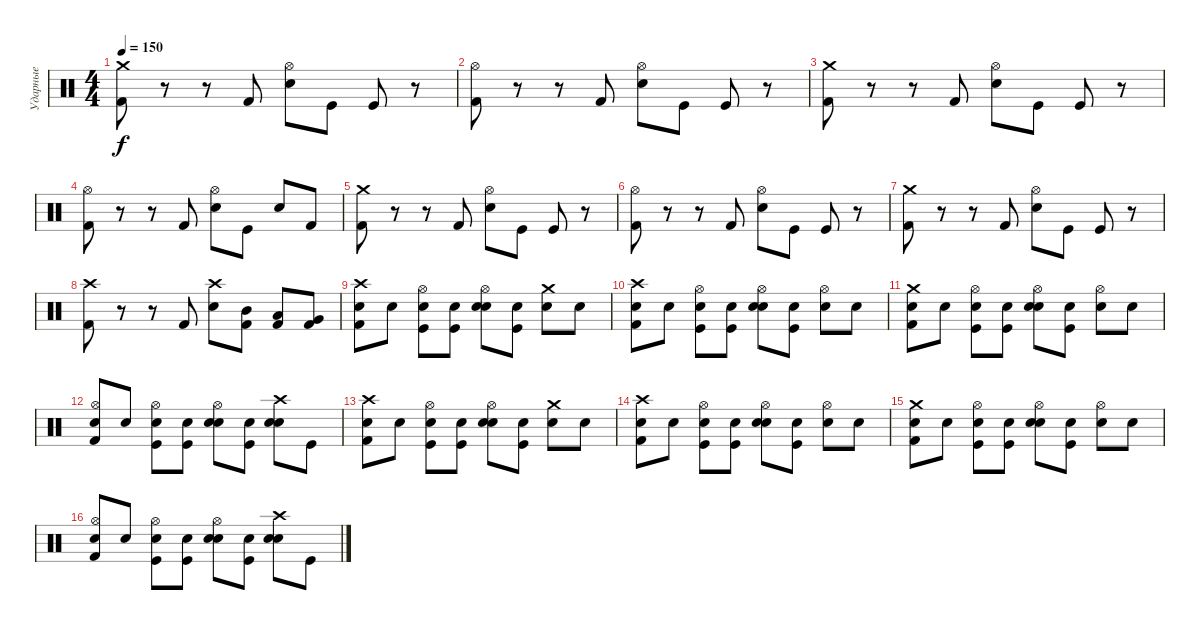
\track ("Ударные" "Ударные") {instrument percussion}
\staff {score}
\articulation defaults
\ts (4 4)
\tempo 150
\clef neutral
\ks c
("Crash medium (hit)" "Kick (hit) 2").8{dy f} r.8 r.8 "Kick (hit) 2".8 ("Hi-Hat (open)" "Snare (hit) 2").8 "Kick (hit)".8 "Kick (hit)".8 r.8 |
("Hi-Hat (open)" "Kick (hit) 2").8 r.8 r.8 "Kick (hit) 2".8 ("Hi-Hat (open)" "Snare (hit) 2").8 "Kick (hit)".8 "Kick (hit)".8 r.8 |
("Crash medium (hit)" "Kick (hit) 2").8 r.8 r.8 "Kick (hit) 2".8 ("Hi-Hat (open)" "Snare (hit) 2").8 "Kick (hit)".8 "Kick (hit)".8 r.8 |
("Hi-Hat (open)" "Kick (hit) 2").8 r.8 r.8 "Kick (hit) 2".8 ("Hi-Hat (open)" "Snare (hit) 2").8 "Kick (hit)".8 "Snare (hit) 2".8 "Kick (hit) 2".8 |
("Crash medium (hit)" "Kick (hit) 2").8 r.8 r.8 "Kick (hit) 2".8 ("Hi-Hat (open)" "Snare (hit) 2").8 "Kick (hit)".8 "Kick (hit)".8 r.8 |
("Hi-Hat (open)" "Kick (hit) 2").8 r.8 r.8 "Kick (hit) 2".8 ("Hi-Hat (open)" "Snare (hit) 2").8 "Kick (hit)".8 "Kick (hit)".8 r.8 |
("Crash medium (hit)" "Kick (hit) 2").8 r.8 r.8 "Kick (hit) 2".8 ("Hi-Hat (open)" "Snare (hit) 2").8 "Kick (hit)".8 "Kick (hit)".8 r.8 |
("Crash high (hit)" "Kick (hit) 2").8 r.8 r.8 "Kick (hit) 2".8 ("Crash high (hit)" "Snare (hit) 2").8 ("Mid Tom (hit)" "Kick (hit) 2").8 ("Low Tom (hit)" "Kick (hit) 2").8 ("Very Low Tom (hit)" "Kick (hit) 2").8 |
("Crash high (hit)" "Snare (hit)" "Kick (hit) 2").8 "Snare (hit)".8 ("Hi-Hat (open)" "Snare (hit)" "Kick (hit)").8 ("Snare (hit)" "Kick (hit)").8 ("Hi-Hat (open)" "Snare (hit) 2" "Snare (hit)").8 ("Snare (hit)" "Kick (hit)").8 ("Crash medium (hit)" "Snare (hit)").8 "Snare (hit)".8 |
("Crash high (hit)" "Snare (hit)" "Kick (hit) 2").8 "Snare (hit)".8 ("Hi-Hat (open)" "Snare (hit)" "Kick (hit)").8 ("Snare (hit)" "Kick (hit)").8 ("Hi-Hat (open)" "Snare (hit) 2" "Snare (hit)").8 ("Snare (hit)" "Kick (hit)").8 ("Hi-Hat (open)" "Snare (hit)").8 "Snare (hit)".8 |
("Crash medium (hit)" "Snare (hit)" "Kick (hit) 2").8 "Snare (hit)".8 ("Hi-Hat (open)" "Snare (hit)" "Kick (hit)").8 ("Snare (hit)" "Kick (hit)").8 ("Hi-Hat (open)" "Snare (hit) 2" "Snare (hit)").8 ("Snare (hit)" "Kick (hit)").8 ("Hi-Hat (open)" "Snare (hit)").8 "Snare (hit)".8 |
("Hi-Hat (open)" "Snare (hit)" "Kick (hit) 2").8 "Snare (hit)".8 ("Hi-Hat (open)" "Snare (hit)" "Kick (hit)").8 ("Snare (hit)" "Kick (hit)").8 ("Hi-Hat (open)" "Snare (hit) 2" "Snare (hit)").8 ("Snare (hit)" "Kick (hit)").8 ("Crash high (hit)" "Snare (hit) 2" "Snare (hit)").8 "Kick (hit)".8 |
("Crash high (hit)" "Snare (hit)" "Kick (hit) 2").8 "Snare (hit)".8 ("Hi-Hat (open)" "Snare (hit)" "Kick (hit)").8 ("Snare (hit)" "Kick (hit)").8 ("Hi-Hat (open)" "Snare (hit) 2" "Snare (hit)").8 ("Snare (hit)" "Kick (hit)").8 ("Crash medium (hit)" "Snare (hit)").8 "Snare (hit)".8 |
("Crash high (hit)" "Snare (hit)" "Kick (hit) 2").8 "Snare (hit)".8 ("Hi-Hat (open)" "Snare (hit)" "Kick (hit)").8 ("Snare (hit)" "Kick (hit)").8 ("Hi-Hat (open)" "Snare (hit) 2" "Snare (hit)").8 ("Snare (hit)" "Kick (hit)").8 ("Hi-Hat (open)" "Snare (hit)").8 "Snare (hit)".8 |
("Crash medium (hit)" "Snare (hit)" "Kick (hit) 2").8 "Snare (hit)".8 ("Hi-Hat (open)" "Snare (hit)" "Kick (hit)").8 ("Snare (hit)" "Kick (hit)").8 ("Hi-Hat (open)" "Snare (hit) 2" "Snare (hit)").8 ("Snare (hit)" "Kick (hit)").8 ("Hi-Hat (open)" "Snare (hit)").8 "Snare (hit)".8 |
("Hi-Hat (open)" "Snare (hit)" "Kick (hit) 2").8 "Snare (hit)".8 ("Hi-Hat (open)" "Snare (hit)" "Kick (hit)").8 ("Snare (hit)" "Kick (hit)").8 ("Hi-Hat (open)" "Snare (hit) 2" "Snare (hit)").8 ("Snare (hit)" "Kick (hit)").8 ("Crash high (hit)" "Snare (hit) 2" "Snare (hit)").8 "Kick (hit)".8
